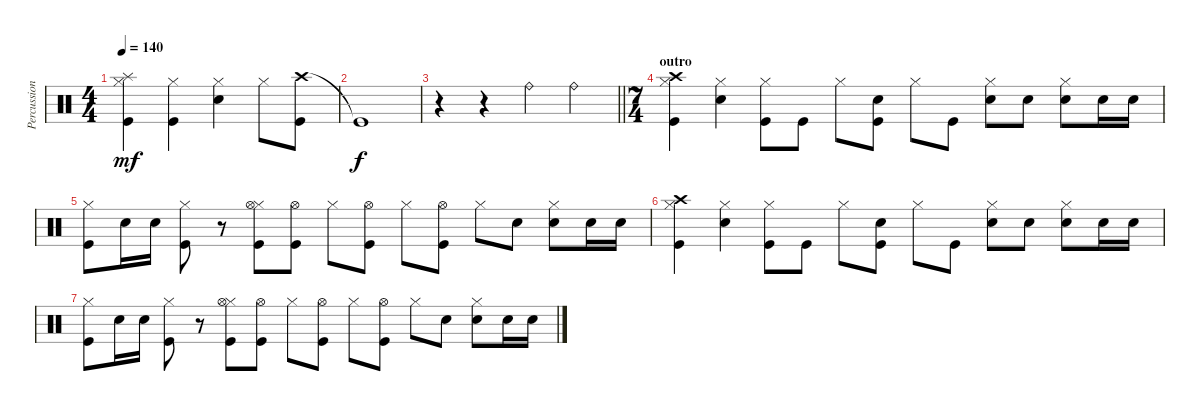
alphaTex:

\track ("Percussion" "Percussion") {instrument percussion}
\staff {score}
\articulation defaults
\ts (4 4)
\tempo 140
\clef neutral
\ks c
("Splash (hit)" "Hi-Hat (closed)" "Kick (hit)").4{dy mf} ("Hi-Hat (closed)" "Kick (hit)").4 ("Hi-Hat (closed)" "Electric Snare (hit)").4 "Hi-Hat (closed)".8 ("Crash high (hit)" "Kick (hit)").8 |
"Kick (hit)"{t}.1{dy f} |
\barLineRight lightlight
r.4 r.4 "Ride (bell)".4 "Ride (bell)".4 |
\ts (7 4)
\section ("" "outro ")
("Crash high (hit)" "Hi-Hat (closed)" "Kick (hit)").4 ("Hi-Hat (closed)" "Electric Snare (hit)").4 ("Hi-Hat (closed)" "Kick (hit)").8 "Kick (hit)".8 "Hi-Hat (closed)".8 ("Electric Snare (hit)" "Kick (hit)").8 "Hi-Hat (closed)".8 "Kick (hit)".8 ("Hi-Hat (closed)" "Electric Snare (hit)").8 "Hand Clap (hit)".8 ("Hi-Hat (closed)" "Hand Clap (hit)").8 "Electric Snare (hit)".16 "Electric Snare (hit)".16 |
("Hi-Hat (closed)" "Kick (hit)").8 "Electric Snare (hit)".16 "Electric Snare (hit)".16 ("Hi-Hat (closed)" "Kick (hit)").8 r.8 ("Hi-Hat (closed)" "Hi-Hat (open)" "Kick (hit)").8 ("Hi-Hat (open)" "Kick (hit)").8 "Hi-Hat (closed)".8 ("Hi-Hat (open)" "Kick (hit)").8 "Hi-Hat (closed)".8 ("Hi-Hat (open)" "Kick (hit)").8 "Hi-Hat (closed)".8 "Hand Clap (hit)".8 ("Hi-Hat (closed)" "Hand Clap (hit)").8 "Electric Snare (hit)".16 "Electric Snare (hit)".16 |
("Crash high (hit)" "Hi-Hat (closed)" "Kick (hit)").4 ("Hi-Hat (closed)" "Electric Snare (hit)").4 ("Hi-Hat (closed)" "Kick (hit)").8 "Kick (hit)".8 "Hi-Hat (closed)".8 ("Electric Snare (hit)" "Kick (hit)").8 "Hi-Hat (closed)".8 "Kick (hit)".8 ("Hi-Hat (closed)" "Electric Snare (hit)").8 "Hand Clap (hit)".8 ("Hi-Hat (closed)" "Hand Clap (hit)").8 "Electric Snare (hit)".16 "Electric Snare (hit)".16 |
("Hi-Hat (closed)" "Kick (hit)").8 "Electric Snare (hit)".16 "Electric Snare (hit)".16 ("Hi-Hat (closed)" "Kick (hit)").8 r.8 ("Hi-Hat (closed)" "Hi-Hat (open)" "Kick (hit)").8 ("Hi-Hat (open)" "Kick (hit)").8 "Hi-Hat (closed)".8 ("Hi-Hat (open)" "Kick (hit)").8 "Hi-Hat (closed)".8 ("Hi-Hat (open)" "Kick (hit)").8 "Hi-Hat (closed)".8 "Hand Clap (hit)".8 ("Hi-Hat (closed)" "Hand Clap (hit)").8 "Electric Snare (hit)".16 "Electric Snare (hit)".16
